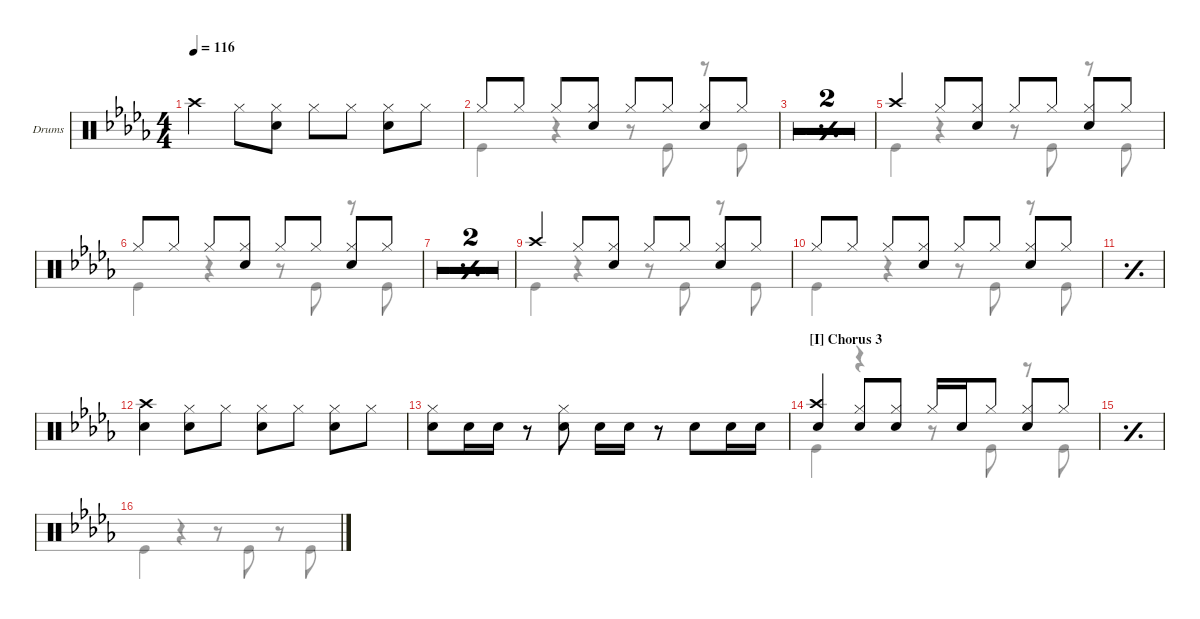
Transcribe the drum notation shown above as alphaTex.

\hideDynamics
\bracketExtendMode nobrackets
\firstSystemTrackNameOrientation horizontal
\otherSystemsTrackNameOrientation horizontal
\track ("Drums" "Drums") {multiBarRest instrument percussion}
\staff {score}
\articulation defaults
\voice
\ts (4 4)
\tempo 116
\clef neutral
\ks db "Crash high (hit)".4{dy mf} "Hi-Hat (closed)".8
("Hi-Hat (closed)" "Snare (hit) 2").8 "Hi-Hat (closed)".8 "Hi-Hat (closed)".8 ("Hi-Hat (closed)" "Snare (hit) 2").8 "Hi-Hat (closed)".8 |
"Hi-Hat (closed)".8 "Hi-Hat (closed)".8 "Hi-Hat (closed)".8 ("Hi-Hat (closed)" "Snare (hit) 2").8 "Hi-Hat (closed)".8 "Hi-Hat (closed)".8 ("Hi-Hat (closed)" "Snare (hit) 2").8 "Hi-Hat (closed)".8 |
\simile simple
|
|
\simile none "Crash high (hit)".4 "Hi-Hat (closed)".8
("Hi-Hat (closed)" "Snare (hit) 2").8 "Hi-Hat (closed)".8 "Hi-Hat (closed)".8 ("Hi-Hat (closed)" "Snare (hit) 2").8 "Hi-Hat (closed)".8 |
"Hi-Hat (closed)".8 "Hi-Hat (closed)".8 "Hi-Hat (closed)".8 ("Hi-Hat (closed)" "Snare (hit) 2").8 "Hi-Hat (closed)".8 "Hi-Hat (closed)".8 ("Hi-Hat (closed)" "Snare (hit) 2").8 "Hi-Hat (closed)".8 |
\simile simple
|
|
\simile none "Crash high (hit)".4 "Hi-Hat (closed)".8
("Hi-Hat (closed)" "Snare (hit) 2").8 "Hi-Hat (closed)".8 "Hi-Hat (closed)".8 ("Hi-Hat (closed)" "Snare (hit) 2").8 "Hi-Hat (closed)".8 |
"Hi-Hat (closed)".8 "Hi-Hat (closed)".8 "Hi-Hat (closed)".8 ("Hi-Hat (closed)" "Snare (hit) 2").8 "Hi-Hat (closed)".8 "Hi-Hat (closed)".8 ("Hi-Hat (closed)" "Snare (hit) 2").8 "Hi-Hat (closed)".8 |
\simile simple
|
\simile none
("Crash high (hit)" "Snare (hit) 2").4 ("Hi-Hat (closed)" "Snare (hit) 2").8 "Hi-Hat (closed)".8 ("Hi-Hat (closed)" "Snare (hit) 2").8 "Hi-Hat (closed)".8 ("Hi-Hat (closed)" "Snare (hit) 2").8 "Hi-Hat (closed)".8 |
("Snare (hit) 2" "Hi-Hat (closed)").8 "Snare (hit) 2".16 "Snare (hit) 2".16 r.8 ("Snare (hit) 2" "Hi-Hat (closed)").8 "Snare (hit) 2".16 "Snare (hit) 2".16 r.8 "Snare (hit) 2".8 "Snare (hit) 2".16 "Snare (hit) 2".16 |
\section ("I" "Chorus 3")
("Crash high (hit)" "Snare (hit) 2").4 ("Hi-Hat (closed)" "Snare (hit) 2").8 ("Hi-Hat (closed)" "Snare (hit) 2").8 "Hi-Hat (closed)".16 "Snare (hit) 2".16 "Hi-Hat (closed)".8 ("Hi-Hat (closed)" "Snare (hit) 2").8 "Hi-Hat (closed)".8 |
\simile simple
|
\simile firstofdouble
\voice
\clef neutral
\ottava regular
\simile none
\ks db "Kick (hit)".4{dy mf}
r.4 r.8 "Kick (hit)".8 r.8 "Kick (hit)".8 |
"Kick (hit)".4 r.4 r.8 "Kick (hit)".8 r.8 "Kick (hit)".8 |
\simile simple
|
|
\simile none "Kick (hit)".4
r.4 r.8 "Kick (hit)".8 r.8 "Kick (hit)".8 |
"Kick (hit)".4 r.4 r.8 "Kick (hit)".8 r.8 "Kick (hit)".8 |
\simile simple
|
|
\simile none "Kick (hit)".4
r.4 r.8 "Kick (hit)".8 r.8 "Kick (hit)".8 |
"Kick (hit)".4 r.4 r.8 "Kick (hit)".8 r.8 "Kick (hit)".8 |
\simile simple
|
\simile none
|
|
"Kick (hit)".4 r.4 r.8 "Kick (hit)".8 r.8 "Kick (hit)".8 |
\simile simple
|
\simile firstofdouble
